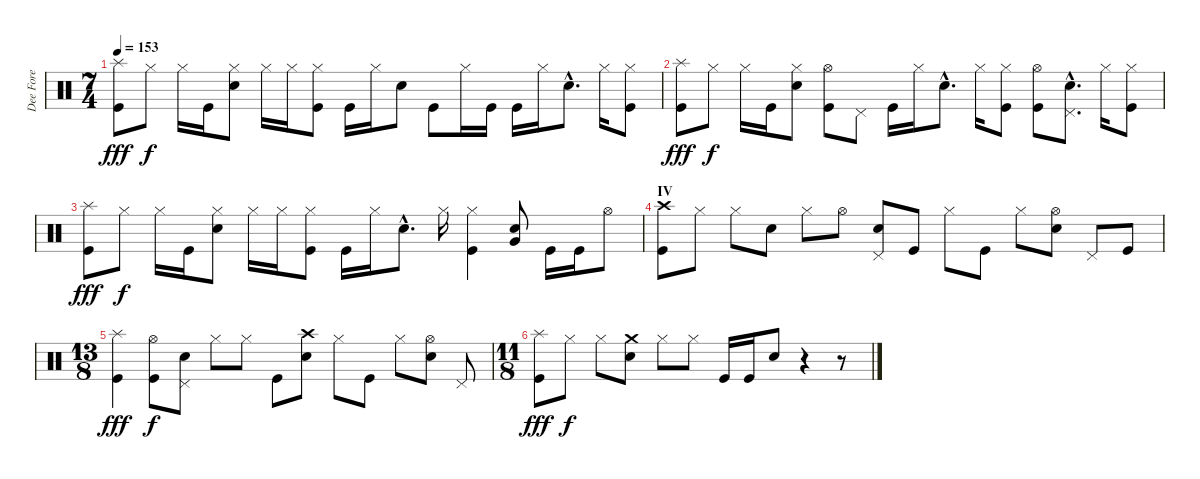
\track ("Dee Fore" "Dee Fore") {instrument percussion}
\staff {score}
\articulation defaults
\ts (7 4)
\tempo 153
\clef neutral
\ks c
("Splash (hit)" "Kick (hit)").8{dy fff} "Hi-Hat (closed)".8{dy f} "Hi-Hat (closed)".16 "Kick (hit)".16 ("Hi-Hat (closed)" "Electric Snare (hit)").8 "Hi-Hat (closed)".16 "Hi-Hat (closed)".16 ("Hi-Hat (closed)" "Kick (hit)").8 "Kick (hit)".16 "Hi-Hat (closed)".16 "Electric Snare (hit)".8 "Kick (hit)".8 "Hi-Hat (closed)".16 "Kick (hit)".16 "Kick (hit)".16 "Hi-Hat (closed)".16 "Electric Snare (hit)"{hac}.8{d} "Hi-Hat (closed)".16 ("Hi-Hat (closed)" "Kick (hit)").8 |
("Splash (hit)" "Kick (hit)").8{dy fff} "Hi-Hat (closed)".8{dy f} "Hi-Hat (closed)".16 "Kick (hit)".16 ("Hi-Hat (closed)" "Electric Snare (hit)").8 ("Hi-Hat (open)" "Kick (hit)").8 "Pedal Hi-Hat (hit)".8 "Kick (hit)".16 "Hi-Hat (closed)".16 "Electric Snare (hit)"{hac}.8{d} "Hi-Hat (closed)".16 ("Hi-Hat (closed)" "Kick (hit)").8 ("Hi-Hat (open)" "Kick (hit)").8 ("Electric Snare (hit)"{hac} "Pedal Hi-Hat (hit)"{hac}).8{d} "Hi-Hat (closed)".16 ("Hi-Hat (closed)" "Kick (hit)").8 |
("Splash (hit)" "Kick (hit)").8{dy fff} "Hi-Hat (closed)".8{dy f} "Hi-Hat (closed)".16 "Kick (hit)".16 ("Hi-Hat (closed)" "Electric Snare (hit)").8 "Hi-Hat (closed)".16 "Hi-Hat (closed)".16 ("Hi-Hat (closed)" "Kick (hit)").8 "Kick (hit)".16 "Hi-Hat (closed)".16 "Electric Snare (hit)"{hac}.8{d} "Hi-Hat (closed)".16 ("Hi-Hat (closed)" "Kick (hit)").4 ("Electric Snare (hit)" "Very Low Tom (hit)").8 "Kick (hit)".16 "Kick (hit)".16 "Hi-Hat (open)".8 |
\section ("" "IV")
("Crash high (hit)" "Kick (hit)").8 "Hi-Hat (closed)".8 "Hi-Hat (closed)".8 "Electric Snare (hit)".8 "Hi-Hat (closed)".8 "Hi-Hat (open)".8 ("Electric Snare (hit)" "Pedal Hi-Hat (hit)").8 "Kick (hit)".8 "Hi-Hat (closed)".8 "Kick (hit)".8 "Hi-Hat (closed)".8 ("Hi-Hat (open)" "Electric Snare (hit)").8 "Pedal Hi-Hat (hit)".8 "Kick (hit)".8 |
\ts (13 8)
("Splash (hit)" "Kick (hit)").4{dy fff} ("Hi-Hat (open)" "Kick (hit)").8{dy f} ("Electric Snare (hit)" "Pedal Hi-Hat (hit)").8 "Hi-Hat (closed)".8 "Hi-Hat (closed)".8 "Kick (hit)".8 ("Crash high (hit)" "Electric Snare (hit)").8 "Hi-Hat (closed)".8 "Kick (hit)".8 "Hi-Hat (closed)".8 ("Hi-Hat (open)" "Electric Snare (hit)").8 "Pedal Hi-Hat (hit)".8 |
\ts (11 8)
("Splash (hit)" "Kick (hit)").8{dy fff} "Hi-Hat (closed)".8{dy f} "Hi-Hat (closed)".8 ("Crash medium (hit)" "Electric Snare (hit)").8 "Hi-Hat (closed)".8 "Hi-Hat (closed)".8 "Kick (hit)".16 "Kick (hit)".16 "Electric Snare (hit)".8 r.4 r.8
